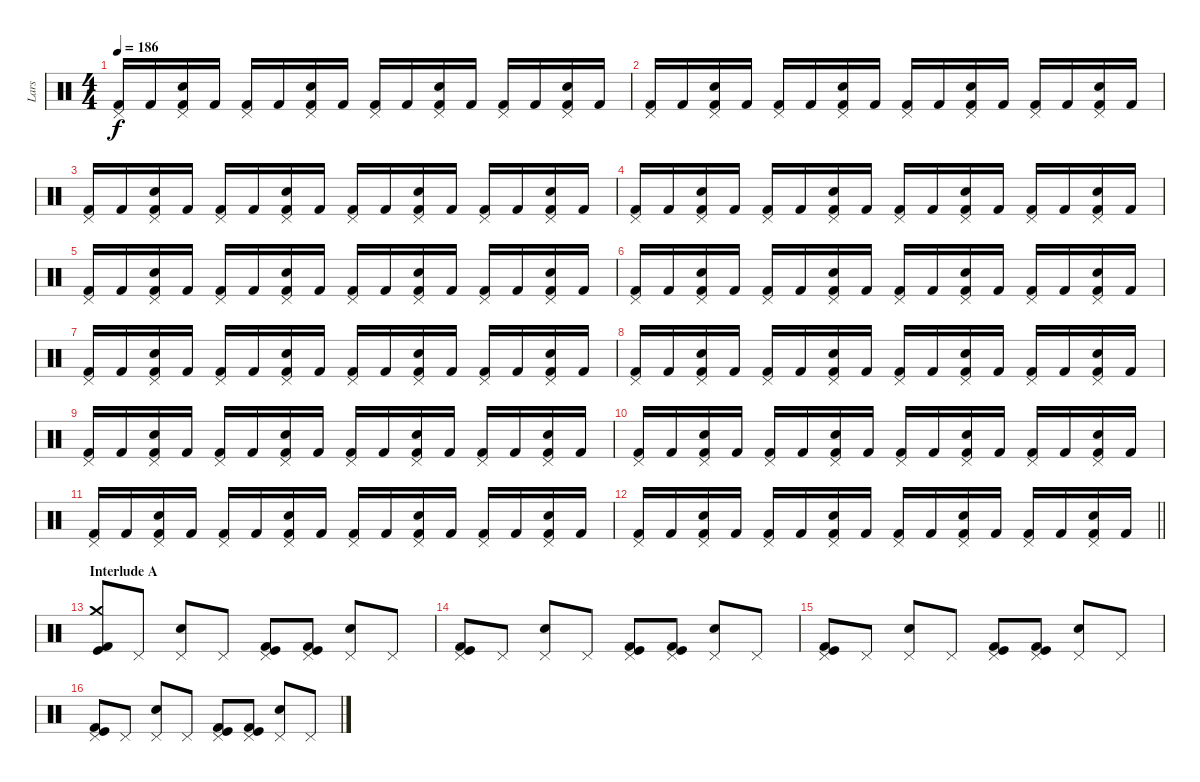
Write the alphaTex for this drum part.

\track ("Lars" "Lars") {instrument percussion}
\staff {score}
\articulation defaults
\ts (4 4)
\tempo 186
\clef neutral
\ks c
("Pedal Hi-Hat (hit)" "Kick (hit) 2").16{dy f} "Kick (hit) 2".16 ("Pedal Hi-Hat (hit)" "Electric Snare (hit)" "Kick (hit) 2").16 "Kick (hit) 2".16 ("Pedal Hi-Hat (hit)" "Kick (hit) 2").16 "Kick (hit) 2".16 ("Pedal Hi-Hat (hit)" "Electric Snare (hit)" "Kick (hit) 2").16 "Kick (hit) 2".16 ("Pedal Hi-Hat (hit)" "Kick (hit) 2").16 "Kick (hit) 2".16 ("Pedal Hi-Hat (hit)" "Electric Snare (hit)" "Kick (hit) 2").16 "Kick (hit) 2".16 ("Pedal Hi-Hat (hit)" "Kick (hit) 2").16 "Kick (hit) 2".16 ("Pedal Hi-Hat (hit)" "Electric Snare (hit)" "Kick (hit) 2").16 "Kick (hit) 2".16 |
("Pedal Hi-Hat (hit)" "Kick (hit) 2").16 "Kick (hit) 2".16 ("Pedal Hi-Hat (hit)" "Electric Snare (hit)" "Kick (hit) 2").16 "Kick (hit) 2".16 ("Pedal Hi-Hat (hit)" "Kick (hit) 2").16 "Kick (hit) 2".16 ("Pedal Hi-Hat (hit)" "Electric Snare (hit)" "Kick (hit) 2").16 "Kick (hit) 2".16 ("Pedal Hi-Hat (hit)" "Kick (hit) 2").16 "Kick (hit) 2".16 ("Pedal Hi-Hat (hit)" "Electric Snare (hit)" "Kick (hit) 2").16 "Kick (hit) 2".16 ("Pedal Hi-Hat (hit)" "Kick (hit) 2").16 "Kick (hit) 2".16 ("Pedal Hi-Hat (hit)" "Electric Snare (hit)" "Kick (hit) 2").16 "Kick (hit) 2".16 |
("Pedal Hi-Hat (hit)" "Kick (hit) 2").16 "Kick (hit) 2".16 ("Pedal Hi-Hat (hit)" "Electric Snare (hit)" "Kick (hit) 2").16 "Kick (hit) 2".16 ("Pedal Hi-Hat (hit)" "Kick (hit) 2").16 "Kick (hit) 2".16 ("Pedal Hi-Hat (hit)" "Electric Snare (hit)" "Kick (hit) 2").16 "Kick (hit) 2".16 ("Pedal Hi-Hat (hit)" "Kick (hit) 2").16 "Kick (hit) 2".16 ("Pedal Hi-Hat (hit)" "Electric Snare (hit)" "Kick (hit) 2").16 "Kick (hit) 2".16 ("Pedal Hi-Hat (hit)" "Kick (hit) 2").16 "Kick (hit) 2".16 ("Pedal Hi-Hat (hit)" "Electric Snare (hit)" "Kick (hit) 2").16 "Kick (hit) 2".16 |
("Pedal Hi-Hat (hit)" "Kick (hit) 2").16 "Kick (hit) 2".16 ("Pedal Hi-Hat (hit)" "Electric Snare (hit)" "Kick (hit) 2").16 "Kick (hit) 2".16 ("Pedal Hi-Hat (hit)" "Kick (hit) 2").16 "Kick (hit) 2".16 ("Pedal Hi-Hat (hit)" "Electric Snare (hit)" "Kick (hit) 2").16 "Kick (hit) 2".16 ("Pedal Hi-Hat (hit)" "Kick (hit) 2").16 "Kick (hit) 2".16 ("Pedal Hi-Hat (hit)" "Electric Snare (hit)" "Kick (hit) 2").16 "Kick (hit) 2".16 ("Pedal Hi-Hat (hit)" "Kick (hit) 2").16 "Kick (hit) 2".16 ("Pedal Hi-Hat (hit)" "Electric Snare (hit)" "Kick (hit) 2").16 "Kick (hit) 2".16 |
("Pedal Hi-Hat (hit)" "Kick (hit) 2").16 "Kick (hit) 2".16 ("Pedal Hi-Hat (hit)" "Electric Snare (hit)" "Kick (hit) 2").16 "Kick (hit) 2".16 ("Pedal Hi-Hat (hit)" "Kick (hit) 2").16 "Kick (hit) 2".16 ("Pedal Hi-Hat (hit)" "Electric Snare (hit)" "Kick (hit) 2").16 "Kick (hit) 2".16 ("Pedal Hi-Hat (hit)" "Kick (hit) 2").16 "Kick (hit) 2".16 ("Pedal Hi-Hat (hit)" "Electric Snare (hit)" "Kick (hit) 2").16 "Kick (hit) 2".16 ("Pedal Hi-Hat (hit)" "Kick (hit) 2").16 "Kick (hit) 2".16 ("Pedal Hi-Hat (hit)" "Electric Snare (hit)" "Kick (hit) 2").16 "Kick (hit) 2".16 |
("Pedal Hi-Hat (hit)" "Kick (hit) 2").16 "Kick (hit) 2".16 ("Pedal Hi-Hat (hit)" "Electric Snare (hit)" "Kick (hit) 2").16 "Kick (hit) 2".16 ("Pedal Hi-Hat (hit)" "Kick (hit) 2").16 "Kick (hit) 2".16 ("Pedal Hi-Hat (hit)" "Electric Snare (hit)" "Kick (hit) 2").16 "Kick (hit) 2".16 ("Pedal Hi-Hat (hit)" "Kick (hit) 2").16 "Kick (hit) 2".16 ("Pedal Hi-Hat (hit)" "Electric Snare (hit)" "Kick (hit) 2").16 "Kick (hit) 2".16 ("Pedal Hi-Hat (hit)" "Kick (hit) 2").16 "Kick (hit) 2".16 ("Pedal Hi-Hat (hit)" "Electric Snare (hit)" "Kick (hit) 2").16 "Kick (hit) 2".16 |
("Pedal Hi-Hat (hit)" "Kick (hit) 2").16 "Kick (hit) 2".16 ("Pedal Hi-Hat (hit)" "Electric Snare (hit)" "Kick (hit) 2").16 "Kick (hit) 2".16 ("Pedal Hi-Hat (hit)" "Kick (hit) 2").16 "Kick (hit) 2".16 ("Pedal Hi-Hat (hit)" "Electric Snare (hit)" "Kick (hit) 2").16 "Kick (hit) 2".16 ("Pedal Hi-Hat (hit)" "Kick (hit) 2").16 "Kick (hit) 2".16 ("Pedal Hi-Hat (hit)" "Electric Snare (hit)" "Kick (hit) 2").16 "Kick (hit) 2".16 ("Pedal Hi-Hat (hit)" "Kick (hit) 2").16 "Kick (hit) 2".16 ("Pedal Hi-Hat (hit)" "Electric Snare (hit)" "Kick (hit) 2").16 "Kick (hit) 2".16 |
("Pedal Hi-Hat (hit)" "Kick (hit) 2").16 "Kick (hit) 2".16 ("Pedal Hi-Hat (hit)" "Electric Snare (hit)" "Kick (hit) 2").16 "Kick (hit) 2".16 ("Pedal Hi-Hat (hit)" "Kick (hit) 2").16 "Kick (hit) 2".16 ("Pedal Hi-Hat (hit)" "Electric Snare (hit)" "Kick (hit) 2").16 "Kick (hit) 2".16 ("Pedal Hi-Hat (hit)" "Kick (hit) 2").16 "Kick (hit) 2".16 ("Pedal Hi-Hat (hit)" "Electric Snare (hit)" "Kick (hit) 2").16 "Kick (hit) 2".16 ("Pedal Hi-Hat (hit)" "Kick (hit) 2").16 "Kick (hit) 2".16 ("Pedal Hi-Hat (hit)" "Electric Snare (hit)" "Kick (hit) 2").16 "Kick (hit) 2".16 |
("Pedal Hi-Hat (hit)" "Kick (hit) 2").16 "Kick (hit) 2".16 ("Pedal Hi-Hat (hit)" "Electric Snare (hit)" "Kick (hit) 2").16 "Kick (hit) 2".16 ("Pedal Hi-Hat (hit)" "Kick (hit) 2").16 "Kick (hit) 2".16 ("Pedal Hi-Hat (hit)" "Electric Snare (hit)" "Kick (hit) 2").16 "Kick (hit) 2".16 ("Pedal Hi-Hat (hit)" "Kick (hit) 2").16 "Kick (hit) 2".16 ("Pedal Hi-Hat (hit)" "Electric Snare (hit)" "Kick (hit) 2").16 "Kick (hit) 2".16 ("Pedal Hi-Hat (hit)" "Kick (hit) 2").16 "Kick (hit) 2".16 ("Pedal Hi-Hat (hit)" "Electric Snare (hit)" "Kick (hit) 2").16 "Kick (hit) 2".16 |
("Pedal Hi-Hat (hit)" "Kick (hit) 2").16 "Kick (hit) 2".16 ("Pedal Hi-Hat (hit)" "Electric Snare (hit)" "Kick (hit) 2").16 "Kick (hit) 2".16 ("Pedal Hi-Hat (hit)" "Kick (hit) 2").16 "Kick (hit) 2".16 ("Pedal Hi-Hat (hit)" "Electric Snare (hit)" "Kick (hit) 2").16 "Kick (hit) 2".16 ("Pedal Hi-Hat (hit)" "Kick (hit) 2").16 "Kick (hit) 2".16 ("Pedal Hi-Hat (hit)" "Electric Snare (hit)" "Kick (hit) 2").16 "Kick (hit) 2".16 ("Pedal Hi-Hat (hit)" "Kick (hit) 2").16 "Kick (hit) 2".16 ("Pedal Hi-Hat (hit)" "Electric Snare (hit)" "Kick (hit) 2").16 "Kick (hit) 2".16 |
("Pedal Hi-Hat (hit)" "Kick (hit) 2").16 "Kick (hit) 2".16 ("Pedal Hi-Hat (hit)" "Electric Snare (hit)" "Kick (hit) 2").16 "Kick (hit) 2".16 ("Pedal Hi-Hat (hit)" "Kick (hit) 2").16 "Kick (hit) 2".16 ("Pedal Hi-Hat (hit)" "Electric Snare (hit)" "Kick (hit) 2").16 "Kick (hit) 2".16 ("Pedal Hi-Hat (hit)" "Kick (hit) 2").16 "Kick (hit) 2".16 ("Pedal Hi-Hat (hit)" "Electric Snare (hit)" "Kick (hit) 2").16 "Kick (hit) 2".16 ("Pedal Hi-Hat (hit)" "Kick (hit) 2").16 "Kick (hit) 2".16 ("Pedal Hi-Hat (hit)" "Electric Snare (hit)" "Kick (hit) 2").16 "Kick (hit) 2".16 |
\barLineRight lightlight
("Pedal Hi-Hat (hit)" "Kick (hit) 2").16 "Kick (hit) 2".16 ("Pedal Hi-Hat (hit)" "Electric Snare (hit)" "Kick (hit) 2").16 "Kick (hit) 2".16 ("Pedal Hi-Hat (hit)" "Kick (hit) 2").16 "Kick (hit) 2".16 ("Pedal Hi-Hat (hit)" "Electric Snare (hit)" "Kick (hit) 2").16 "Kick (hit) 2".16 ("Pedal Hi-Hat (hit)" "Kick (hit) 2").16 "Kick (hit) 2".16 ("Pedal Hi-Hat (hit)" "Electric Snare (hit)" "Kick (hit) 2").16 "Kick (hit) 2".16 ("Pedal Hi-Hat (hit)" "Kick (hit) 2").16 "Kick (hit) 2".16 ("Pedal Hi-Hat (hit)" "Electric Snare (hit)" "Kick (hit) 2").16 "Kick (hit) 2".16 |
\section ("" "Interlude A")
("Crash medium (hit)" "Kick (hit)" "Kick (hit) 2").8 "Pedal Hi-Hat (hit)".8 ("Pedal Hi-Hat (hit)" "Electric Snare (hit)").8 "Pedal Hi-Hat (hit)".8 ("Pedal Hi-Hat (hit)" "Kick (hit)" "Kick (hit) 2").8 ("Pedal Hi-Hat (hit)" "Kick (hit)" "Kick (hit) 2").8 ("Pedal Hi-Hat (hit)" "Electric Snare (hit)").8 "Pedal Hi-Hat (hit)".8 |
("Pedal Hi-Hat (hit)" "Kick (hit)" "Kick (hit) 2").8 "Pedal Hi-Hat (hit)".8 ("Pedal Hi-Hat (hit)" "Electric Snare (hit)").8 "Pedal Hi-Hat (hit)".8 ("Pedal Hi-Hat (hit)" "Kick (hit)" "Kick (hit) 2").8 ("Pedal Hi-Hat (hit)" "Kick (hit)" "Kick (hit) 2").8 ("Pedal Hi-Hat (hit)" "Electric Snare (hit)").8 "Pedal Hi-Hat (hit)".8 |
("Pedal Hi-Hat (hit)" "Kick (hit)" "Kick (hit) 2").8 "Pedal Hi-Hat (hit)".8 ("Pedal Hi-Hat (hit)" "Electric Snare (hit)").8 "Pedal Hi-Hat (hit)".8 ("Pedal Hi-Hat (hit)" "Kick (hit)" "Kick (hit) 2").8 ("Pedal Hi-Hat (hit)" "Kick (hit)" "Kick (hit) 2").8 ("Pedal Hi-Hat (hit)" "Electric Snare (hit)").8 "Pedal Hi-Hat (hit)".8 |
("Pedal Hi-Hat (hit)" "Kick (hit)" "Kick (hit) 2").8 "Pedal Hi-Hat (hit)".8 ("Pedal Hi-Hat (hit)" "Electric Snare (hit)").8 "Pedal Hi-Hat (hit)".8 ("Pedal Hi-Hat (hit)" "Kick (hit)" "Kick (hit) 2").8 ("Pedal Hi-Hat (hit)" "Kick (hit)" "Kick (hit) 2").8 ("Pedal Hi-Hat (hit)" "Electric Snare (hit)").8 "Pedal Hi-Hat (hit)".8
